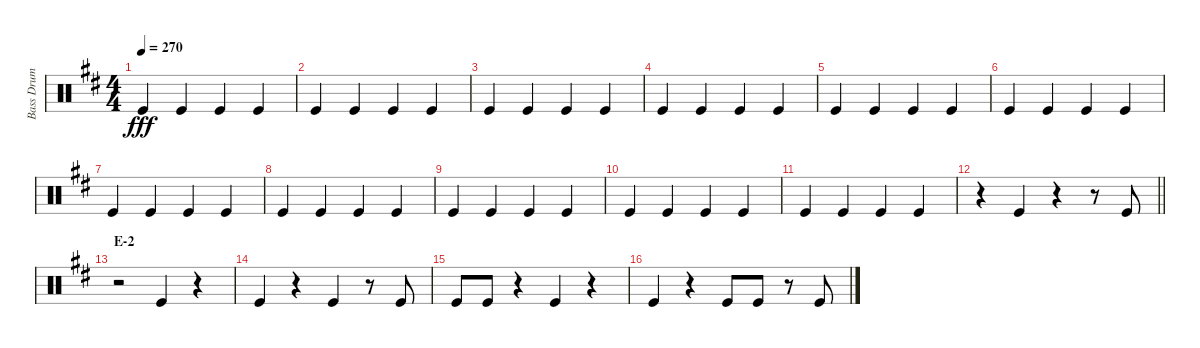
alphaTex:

\track ("Bass Drum" "Bass Drum") {instrument percussion}
\staff {score}
\articulation defaults
\ts (4 4)
\tempo 270
\clef neutral
\ks d "Kick (hit)".4{dy fff} "Kick (hit)".4 "Kick (hit)".4 "Kick (hit)".4
|
"Kick (hit)".4 "Kick (hit)".4 "Kick (hit)".4 "Kick (hit)".4 |
"Kick (hit)".4 "Kick (hit)".4 "Kick (hit)".4 "Kick (hit)".4 |
"Kick (hit)".4 "Kick (hit)".4 "Kick (hit)".4 "Kick (hit)".4 |
"Kick (hit)".4 "Kick (hit)".4 "Kick (hit)".4 "Kick (hit)".4 |
"Kick (hit)".4 "Kick (hit)".4 "Kick (hit)".4 "Kick (hit)".4 |
"Kick (hit)".4 "Kick (hit)".4 "Kick (hit)".4 "Kick (hit)".4 |
"Kick (hit)".4 "Kick (hit)".4 "Kick (hit)".4 "Kick (hit)".4 |
"Kick (hit)".4 "Kick (hit)".4 "Kick (hit)".4 "Kick (hit)".4 |
"Kick (hit)".4 "Kick (hit)".4 "Kick (hit)".4 "Kick (hit)".4 |
"Kick (hit)".4 "Kick (hit)".4 "Kick (hit)".4 "Kick (hit)".4 |
\barLineRight lightlight
r.4 "Kick (hit)".4 r.4 r.8 "Kick (hit)".8 |
\section ("" "E-2")
r.2 "Kick (hit)".4 r.4 |
"Kick (hit)".4 r.4 "Kick (hit)".4 r.8 "Kick (hit)".8 |
"Kick (hit)".8 "Kick (hit)".8 r.4 "Kick (hit)".4 r.4 |
"Kick (hit)".4 r.4 "Kick (hit)".8 "Kick (hit)".8 r.8 "Kick (hit)".8
